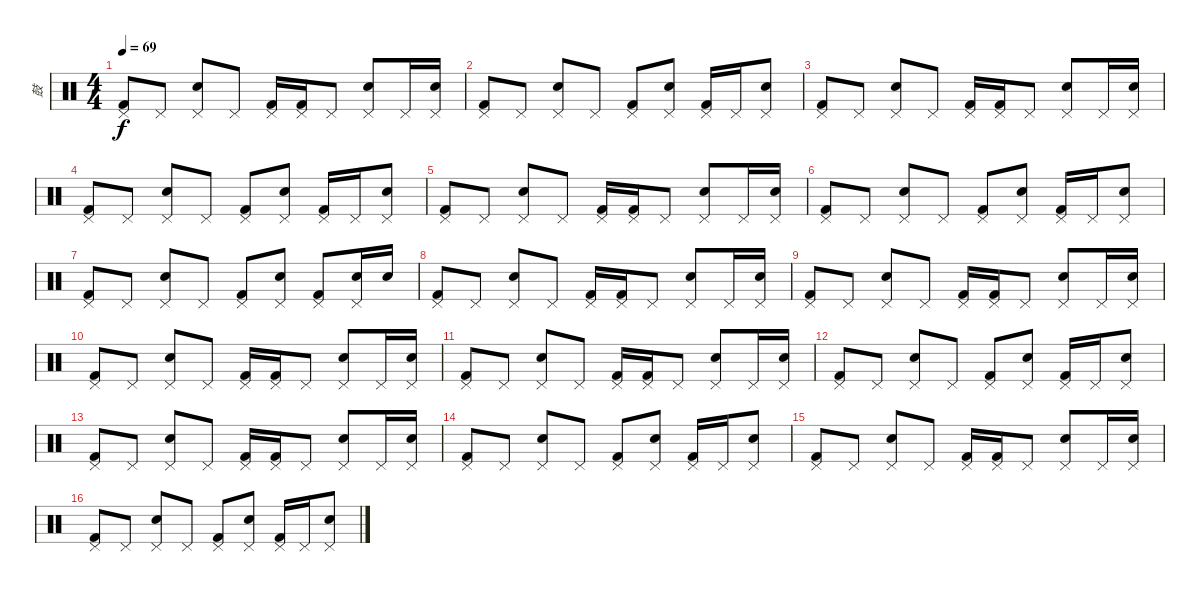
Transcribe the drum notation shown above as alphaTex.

\track ("鼓" "鼓") {instrument percussion}
\staff {score}
\articulation defaults
\ts (4 4)
\tempo 69
\clef neutral
\ks c
("Pedal Hi-Hat (hit)" "Kick (hit) 2").8{dy f} "Pedal Hi-Hat (hit)".8 ("Pedal Hi-Hat (hit)" "Electric Snare (hit)").8 "Pedal Hi-Hat (hit)".8 ("Pedal Hi-Hat (hit)" "Kick (hit) 2").16 ("Pedal Hi-Hat (hit)" "Kick (hit) 2").16 "Pedal Hi-Hat (hit)".8 ("Pedal Hi-Hat (hit)" "Electric Snare (hit)").8 "Pedal Hi-Hat (hit)".16 ("Pedal Hi-Hat (hit)" "Electric Snare (hit)").16 |
("Pedal Hi-Hat (hit)" "Kick (hit) 2").8 "Pedal Hi-Hat (hit)".8 ("Pedal Hi-Hat (hit)" "Electric Snare (hit)").8 "Pedal Hi-Hat (hit)".8 ("Pedal Hi-Hat (hit)" "Kick (hit) 2").8 ("Pedal Hi-Hat (hit)" "Electric Snare (hit)").8 ("Pedal Hi-Hat (hit)" "Kick (hit) 2").16 "Pedal Hi-Hat (hit)".16 ("Pedal Hi-Hat (hit)" "Electric Snare (hit)").8 |
("Pedal Hi-Hat (hit)" "Kick (hit) 2").8 "Pedal Hi-Hat (hit)".8 ("Pedal Hi-Hat (hit)" "Electric Snare (hit)").8 "Pedal Hi-Hat (hit)".8 ("Pedal Hi-Hat (hit)" "Kick (hit) 2").16 ("Pedal Hi-Hat (hit)" "Kick (hit) 2").16 "Pedal Hi-Hat (hit)".8 ("Pedal Hi-Hat (hit)" "Electric Snare (hit)").8 "Pedal Hi-Hat (hit)".16 ("Pedal Hi-Hat (hit)" "Electric Snare (hit)").16 |
("Pedal Hi-Hat (hit)" "Kick (hit) 2").8 "Pedal Hi-Hat (hit)".8 ("Pedal Hi-Hat (hit)" "Electric Snare (hit)").8 "Pedal Hi-Hat (hit)".8 ("Pedal Hi-Hat (hit)" "Kick (hit) 2").8 ("Pedal Hi-Hat (hit)" "Electric Snare (hit)").8 ("Pedal Hi-Hat (hit)" "Kick (hit) 2").16 "Pedal Hi-Hat (hit)".16 ("Pedal Hi-Hat (hit)" "Electric Snare (hit)").8 |
("Pedal Hi-Hat (hit)" "Kick (hit) 2").8 "Pedal Hi-Hat (hit)".8 ("Pedal Hi-Hat (hit)" "Electric Snare (hit)").8 "Pedal Hi-Hat (hit)".8 ("Pedal Hi-Hat (hit)" "Kick (hit) 2").16 ("Pedal Hi-Hat (hit)" "Kick (hit) 2").16 "Pedal Hi-Hat (hit)".8 ("Pedal Hi-Hat (hit)" "Electric Snare (hit)").8 "Pedal Hi-Hat (hit)".16 ("Pedal Hi-Hat (hit)" "Electric Snare (hit)").16 |
("Pedal Hi-Hat (hit)" "Kick (hit) 2").8 "Pedal Hi-Hat (hit)".8 ("Pedal Hi-Hat (hit)" "Electric Snare (hit)").8 "Pedal Hi-Hat (hit)".8 ("Pedal Hi-Hat (hit)" "Kick (hit) 2").8 ("Pedal Hi-Hat (hit)" "Electric Snare (hit)").8 ("Pedal Hi-Hat (hit)" "Kick (hit) 2").16 "Pedal Hi-Hat (hit)".16 ("Pedal Hi-Hat (hit)" "Electric Snare (hit)").8 |
("Pedal Hi-Hat (hit)" "Kick (hit) 2").8 "Pedal Hi-Hat (hit)".8 ("Pedal Hi-Hat (hit)" "Electric Snare (hit)").8 "Pedal Hi-Hat (hit)".8 ("Pedal Hi-Hat (hit)" "Kick (hit) 2").8 ("Pedal Hi-Hat (hit)" "Electric Snare (hit)").8 ("Pedal Hi-Hat (hit)" "Kick (hit) 2").8 ("Pedal Hi-Hat (hit)" "Electric Snare (hit)").16 "Electric Snare (hit)".16 |
("Pedal Hi-Hat (hit)" "Kick (hit) 2").8 "Pedal Hi-Hat (hit)".8 ("Pedal Hi-Hat (hit)" "Electric Snare (hit)").8 "Pedal Hi-Hat (hit)".8 ("Pedal Hi-Hat (hit)" "Kick (hit) 2").16 ("Pedal Hi-Hat (hit)" "Kick (hit) 2").16 "Pedal Hi-Hat (hit)".8 ("Pedal Hi-Hat (hit)" "Electric Snare (hit)").8 "Pedal Hi-Hat (hit)".16 ("Pedal Hi-Hat (hit)" "Electric Snare (hit)").16 |
("Pedal Hi-Hat (hit)" "Kick (hit) 2").8 "Pedal Hi-Hat (hit)".8 ("Pedal Hi-Hat (hit)" "Electric Snare (hit)").8 "Pedal Hi-Hat (hit)".8 ("Pedal Hi-Hat (hit)" "Kick (hit) 2").16 ("Pedal Hi-Hat (hit)" "Kick (hit) 2").16 "Pedal Hi-Hat (hit)".8 ("Pedal Hi-Hat (hit)" "Electric Snare (hit)").8 "Pedal Hi-Hat (hit)".16 ("Pedal Hi-Hat (hit)" "Electric Snare (hit)").16 |
("Pedal Hi-Hat (hit)" "Kick (hit) 2").8 "Pedal Hi-Hat (hit)".8 ("Pedal Hi-Hat (hit)" "Electric Snare (hit)").8 "Pedal Hi-Hat (hit)".8 ("Pedal Hi-Hat (hit)" "Kick (hit) 2").16 ("Pedal Hi-Hat (hit)" "Kick (hit) 2").16 "Pedal Hi-Hat (hit)".8 ("Pedal Hi-Hat (hit)" "Electric Snare (hit)").8 "Pedal Hi-Hat (hit)".16 ("Pedal Hi-Hat (hit)" "Electric Snare (hit)").16 |
("Pedal Hi-Hat (hit)" "Kick (hit) 2").8 "Pedal Hi-Hat (hit)".8 ("Pedal Hi-Hat (hit)" "Electric Snare (hit)").8 "Pedal Hi-Hat (hit)".8 ("Pedal Hi-Hat (hit)" "Kick (hit) 2").16 ("Pedal Hi-Hat (hit)" "Kick (hit) 2").16 "Pedal Hi-Hat (hit)".8 ("Pedal Hi-Hat (hit)" "Electric Snare (hit)").8 "Pedal Hi-Hat (hit)".16 ("Pedal Hi-Hat (hit)" "Electric Snare (hit)").16 |
("Pedal Hi-Hat (hit)" "Kick (hit) 2").8 "Pedal Hi-Hat (hit)".8 ("Pedal Hi-Hat (hit)" "Electric Snare (hit)").8 "Pedal Hi-Hat (hit)".8 ("Pedal Hi-Hat (hit)" "Kick (hit) 2").8 ("Pedal Hi-Hat (hit)" "Electric Snare (hit)").8 ("Pedal Hi-Hat (hit)" "Kick (hit) 2").16 "Pedal Hi-Hat (hit)".16 ("Pedal Hi-Hat (hit)" "Electric Snare (hit)").8 |
("Pedal Hi-Hat (hit)" "Kick (hit) 2").8 "Pedal Hi-Hat (hit)".8 ("Pedal Hi-Hat (hit)" "Electric Snare (hit)").8 "Pedal Hi-Hat (hit)".8 ("Pedal Hi-Hat (hit)" "Kick (hit) 2").16 ("Pedal Hi-Hat (hit)" "Kick (hit) 2").16 "Pedal Hi-Hat (hit)".8 ("Pedal Hi-Hat (hit)" "Electric Snare (hit)").8 "Pedal Hi-Hat (hit)".16 ("Pedal Hi-Hat (hit)" "Electric Snare (hit)").16 |
("Pedal Hi-Hat (hit)" "Kick (hit) 2").8 "Pedal Hi-Hat (hit)".8 ("Pedal Hi-Hat (hit)" "Electric Snare (hit)").8 "Pedal Hi-Hat (hit)".8 ("Pedal Hi-Hat (hit)" "Kick (hit) 2").8 ("Pedal Hi-Hat (hit)" "Electric Snare (hit)").8 ("Pedal Hi-Hat (hit)" "Kick (hit) 2").16 "Pedal Hi-Hat (hit)".16 ("Pedal Hi-Hat (hit)" "Electric Snare (hit)").8 |
("Pedal Hi-Hat (hit)" "Kick (hit) 2").8 "Pedal Hi-Hat (hit)".8 ("Pedal Hi-Hat (hit)" "Electric Snare (hit)").8 "Pedal Hi-Hat (hit)".8 ("Pedal Hi-Hat (hit)" "Kick (hit) 2").16 ("Pedal Hi-Hat (hit)" "Kick (hit) 2").16 "Pedal Hi-Hat (hit)".8 ("Pedal Hi-Hat (hit)" "Electric Snare (hit)").8 "Pedal Hi-Hat (hit)".16 ("Pedal Hi-Hat (hit)" "Electric Snare (hit)").16 |
("Pedal Hi-Hat (hit)" "Kick (hit) 2").8 "Pedal Hi-Hat (hit)".8 ("Pedal Hi-Hat (hit)" "Electric Snare (hit)").8 "Pedal Hi-Hat (hit)".8 ("Pedal Hi-Hat (hit)" "Kick (hit) 2").8 ("Pedal Hi-Hat (hit)" "Electric Snare (hit)").8 ("Pedal Hi-Hat (hit)" "Kick (hit) 2").16 "Pedal Hi-Hat (hit)".16 ("Pedal Hi-Hat (hit)" "Electric Snare (hit)").8
